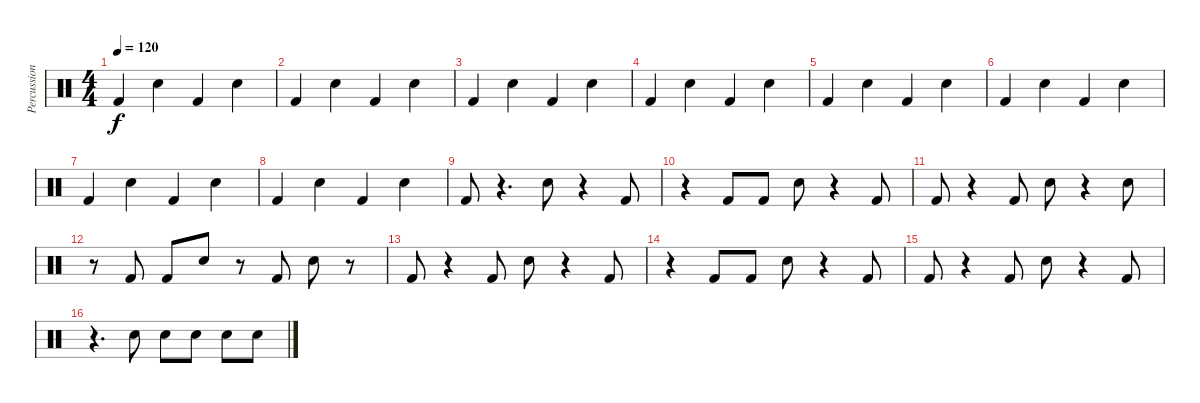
\track ("Percussion" "Percussion") {instrument percussion}
\staff {score}
\articulation defaults
\ts (4 4)
\tempo 120
\clef neutral
\ks c "Kick (hit) 2".4{dy f} "Snare (hit) 2".4 "Kick (hit) 2".4 "Snare (hit) 2".4
|
"Kick (hit) 2".4 "Snare (hit) 2".4 "Kick (hit) 2".4 "Snare (hit) 2".4 |
"Kick (hit) 2".4 "Snare (hit) 2".4 "Kick (hit) 2".4 "Snare (hit) 2".4 |
"Kick (hit) 2".4 "Snare (hit) 2".4 "Kick (hit) 2".4 "Snare (hit) 2".4 |
"Kick (hit) 2".4 "Snare (hit) 2".4 "Kick (hit) 2".4 "Snare (hit) 2".4 |
"Kick (hit) 2".4 "Snare (hit) 2".4 "Kick (hit) 2".4 "Snare (hit) 2".4 |
"Kick (hit) 2".4 "Snare (hit) 2".4 "Kick (hit) 2".4 "Snare (hit) 2".4 |
"Kick (hit) 2".4 "Snare (hit) 2".4 "Kick (hit) 2".4 "Snare (hit) 2".4 |
"Kick (hit) 2".8 r.4{d} "Snare (hit) 2".8 r.4 "Kick (hit) 2".8 |
r.4 "Kick (hit) 2".8 "Kick (hit) 2".8 "Snare (hit) 2".8 r.4 "Kick (hit) 2".8 |
"Kick (hit) 2".8 r.4 "Kick (hit) 2".8 "Snare (hit) 2".8 r.4 "Snare (hit) 2".8 |
r.8 "Kick (hit) 2".8 "Kick (hit) 2".8 "Snare (hit) 2".8 r.8 "Kick (hit) 2".8 "Snare (hit) 2".8 r.8 |
"Kick (hit) 2".8 r.4 "Kick (hit) 2".8 "Snare (hit) 2".8 r.4 "Kick (hit) 2".8 |
r.4 "Kick (hit) 2".8 "Kick (hit) 2".8 "Snare (hit) 2".8 r.4 "Kick (hit) 2".8 |
"Kick (hit) 2".8 r.4 "Kick (hit) 2".8 "Snare (hit) 2".8 r.4 "Kick (hit) 2".8 |
r.4{d} "Snare (hit) 2".8 "Snare (hit) 2".8 "Snare (hit) 2".8 "Snare (hit) 2".8 "Snare (hit) 2".8
